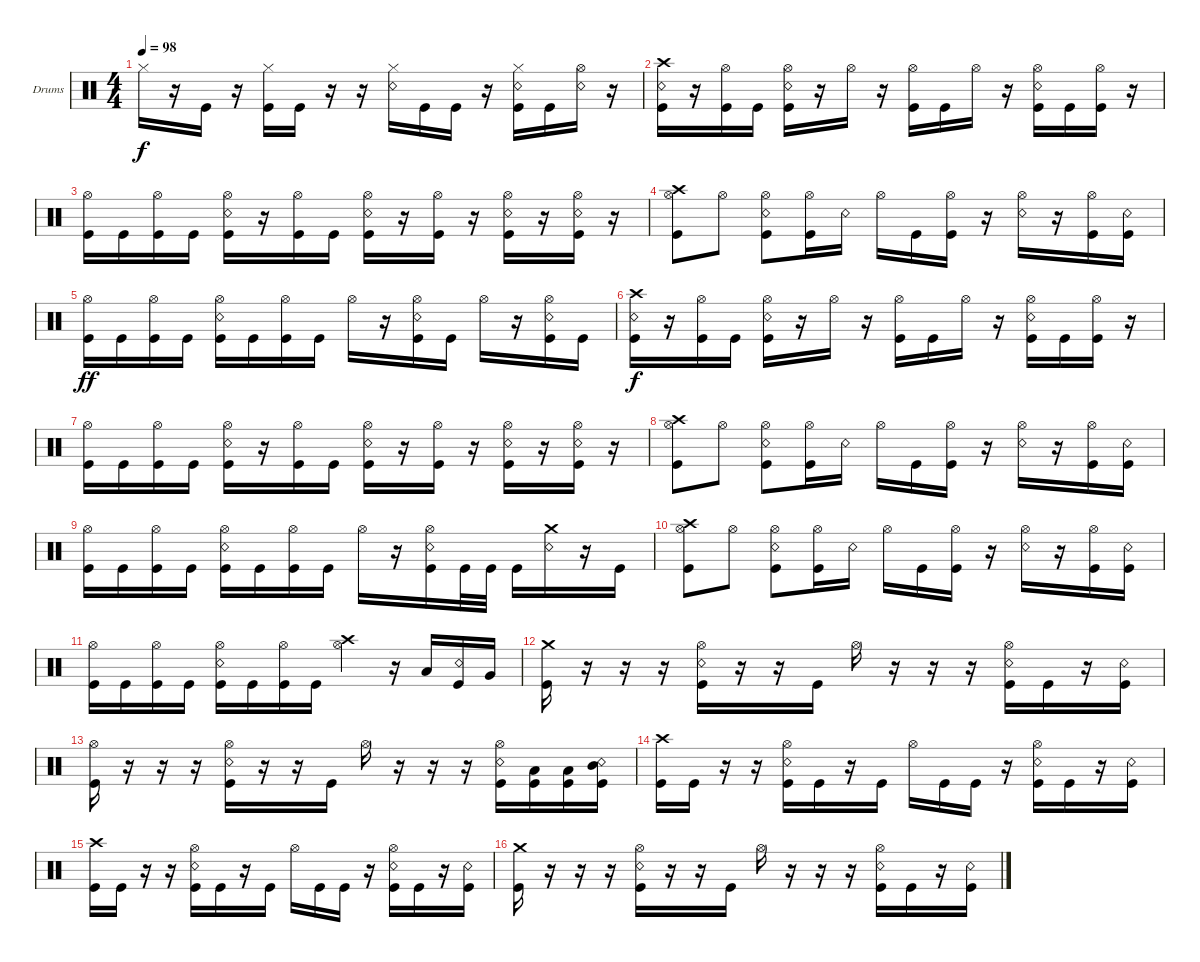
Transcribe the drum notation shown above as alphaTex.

\bracketExtendMode groupsimilarinstruments
\firstSystemTrackNameOrientation horizontal
\otherSystemsTrackNameOrientation horizontal
\track ("Drumkit" "Drums") {instrument percussion}
\staff {score}
\articulation defaults
\ts (4 4)
\tempo 98
\clef neutral
\ks c "Hi-Hat (closed)".16{dy f}
r.16 "Kick (hit)".16 r.16 ("Kick (hit)" "Hi-Hat (closed)").16 "Kick (hit)".16 r.16 r.16 ("Hi-Hat (closed)" "Snare (rim shot)").16 "Kick (hit)".16 "Kick (hit)".16 r.16 ("Kick (hit)" "Hi-Hat (closed)" "Snare (rim shot)").16 "Kick (hit)".16 ("Snare (rim shot)" "Hi-Hat (open)").16 r.16 |
("Crash high (hit)" "Kick (hit)" "Snare (rim shot)").16 r.16 ("Kick (hit)" "Hi-Hat (open)").16 "Kick (hit)".16 ("Kick (hit)" "Hi-Hat (open)" "Snare (rim shot)").16 r.16 "Hi-Hat (open)".16 r.16 ("Kick (hit)" "Hi-Hat (open)").16 "Kick (hit)".16 "Hi-Hat (open)".16 r.16 ("Kick (hit)" "Hi-Hat (open)" "Snare (rim shot)").16 "Kick (hit)".16 ("Kick (hit)" "Hi-Hat (open)").16 r.16 |
("Kick (hit)" "Hi-Hat (open)").16 "Kick (hit)".16 ("Kick (hit)" "Hi-Hat (open)").16 "Kick (hit)".16 ("Kick (hit)" "Hi-Hat (open)" "Snare (rim shot)").16 r.16 ("Kick (hit)" "Hi-Hat (open)").16 "Kick (hit)".16 ("Kick (hit)" "Hi-Hat (open)" "Snare (rim shot)").16 r.16 ("Kick (hit)" "Hi-Hat (open)").16 r.16 ("Kick (hit)" "Hi-Hat (open)" "Snare (rim shot)").16 r.16 ("Kick (hit)" "Hi-Hat (open)" "Snare (rim shot)").16 r.16 |
("Kick (hit)" "Hi-Hat (open)" "Crash high (hit)").8 "Hi-Hat (open)".8 ("Kick (hit)" "Hi-Hat (open)" "Snare (rim shot)").8 ("Kick (hit)" "Hi-Hat (open)").16 "Snare (rim shot)".16 "Hi-Hat (open)".16 "Kick (hit)".16 ("Kick (hit)" "Hi-Hat (open)").16 r.16 ("Snare (rim shot)" "Hi-Hat (open)").16 r.16 ("Hi-Hat (open)" "Kick (hit)").16 ("Snare (rim shot)" "Kick (hit)").16 |
("Kick (hit)" "Hi-Hat (open)").16{dy ff} "Kick (hit)".16 ("Kick (hit)" "Hi-Hat (open)").16 "Kick (hit)".16 ("Kick (hit)" "Hi-Hat (open)" "Snare (rim shot)").16 "Kick (hit)".16 ("Kick (hit)" "Hi-Hat (open)").16 "Kick (hit)".16 "Hi-Hat (open)".16 r.16 ("Kick (hit)" "Hi-Hat (open)" "Snare (rim shot)").16 "Kick (hit)".16 "Hi-Hat (open)".16 r.16 ("Kick (hit)" "Snare (rim shot)" "Hi-Hat (open)").16 "Kick (hit)".16 |
("Crash high (hit)" "Kick (hit)" "Snare (rim shot)").16{dy f} r.16 ("Kick (hit)" "Hi-Hat (open)").16 "Kick (hit)".16 ("Kick (hit)" "Hi-Hat (open)" "Snare (rim shot)").16 r.16 "Hi-Hat (open)".16 r.16 ("Kick (hit)" "Hi-Hat (open)").16 "Kick (hit)".16 "Hi-Hat (open)".16 r.16 ("Kick (hit)" "Hi-Hat (open)" "Snare (rim shot)").16 "Kick (hit)".16 ("Kick (hit)" "Hi-Hat (open)").16 r.16 |
("Kick (hit)" "Hi-Hat (open)").16 "Kick (hit)".16 ("Kick (hit)" "Hi-Hat (open)").16 "Kick (hit)".16 ("Kick (hit)" "Hi-Hat (open)" "Snare (rim shot)").16 r.16 ("Kick (hit)" "Hi-Hat (open)").16 "Kick (hit)".16 ("Kick (hit)" "Hi-Hat (open)" "Snare (rim shot)").16 r.16 ("Kick (hit)" "Hi-Hat (open)").16 r.16 ("Kick (hit)" "Hi-Hat (open)" "Snare (rim shot)").16 r.16 ("Kick (hit)" "Hi-Hat (open)" "Snare (rim shot)").16 r.16 |
("Kick (hit)" "Hi-Hat (open)" "Crash high (hit)").8 "Hi-Hat (open)".8 ("Kick (hit)" "Hi-Hat (open)" "Snare (rim shot)").8 ("Kick (hit)" "Hi-Hat (open)").16 "Snare (rim shot)".16 "Hi-Hat (open)".16 "Kick (hit)".16 ("Kick (hit)" "Hi-Hat (open)").16 r.16 ("Snare (rim shot)" "Hi-Hat (open)").16 r.16 ("Hi-Hat (open)" "Kick (hit)").16 ("Snare (rim shot)" "Kick (hit)").16 |
("Kick (hit)" "Hi-Hat (open)").16 "Kick (hit)".16 ("Kick (hit)" "Hi-Hat (open)").16 "Kick (hit)".16 ("Kick (hit)" "Hi-Hat (open)" "Snare (rim shot)").16 "Kick (hit)".16 ("Kick (hit)" "Hi-Hat (open)").16 "Kick (hit)".16 "Hi-Hat (open)".16 r.16 ("Hi-Hat (open)" "Snare (rim shot)" "Kick (hit)").16 "Kick (hit)".32 "Kick (hit)".32 "Kick (hit)".16 ("Snare (rim shot)" "Crash medium (hit)").16 r.16 "Kick (hit)".16 |
("Kick (hit)" "Hi-Hat (open)" "Crash high (hit)").8 "Hi-Hat (open)".8 ("Kick (hit)" "Hi-Hat (open)" "Snare (rim shot)").8 ("Kick (hit)" "Hi-Hat (open)").16 "Snare (rim shot)".16 "Hi-Hat (open)".16 "Kick (hit)".16 ("Kick (hit)" "Hi-Hat (open)").16 r.16 ("Snare (rim shot)" "Hi-Hat (open)").16 r.16 ("Hi-Hat (open)" "Kick (hit)").16 ("Snare (rim shot)" "Kick (hit)").16 |
("Kick (hit)" "Hi-Hat (open)").16 "Kick (hit)".16 ("Kick (hit)" "Hi-Hat (open)").16 "Kick (hit)".16 ("Kick (hit)" "Hi-Hat (open)" "Snare (rim shot)").16 "Kick (hit)".16 ("Kick (hit)" "Hi-Hat (open)").16 "Kick (hit)".16 ("Hi-Hat (open)" "Crash high (hit)").4 r.16 "Low Tom (hit)".16 ("Snare (rim shot)" "Kick (hit)").16 "Very Low Tom (hit)".16 |
("Crash medium (hit)" "Kick (hit)").16 r.16 r.16 r.16 ("Kick (hit)" "Hi-Hat (open)" "Snare (rim shot)").16 r.16 r.16 "Kick (hit)".16 "Hi-Hat (open)".16 r.16 r.16 r.16 ("Kick (hit)" "Hi-Hat (open)" "Snare (rim shot)").16 "Kick (hit)".16 r.16 ("Kick (hit)" "Snare (rim shot)").16 |
("Kick (hit)" "Hi-Hat (open)").16 r.16 r.16 r.16 ("Kick (hit)" "Hi-Hat (open)" "Snare (rim shot)").16 r.16 r.16 "Kick (hit)".16 "Hi-Hat (open)".16 r.16 r.16 r.16 ("Kick (hit)" "Hi-Hat (open)" "Snare (rim shot)").16 ("Kick (hit)" "Low Tom (hit)").16 ("Kick (hit)" "Low Tom (hit)").16 ("Kick (hit)" "Snare (rim shot)" "Mid Tom (hit)").16 |
("Kick (hit)" "Crash high (hit)").16 "Kick (hit)".16 r.16 r.16 ("Kick (hit)" "Hi-Hat (open)" "Snare (rim shot)").16 "Kick (hit)".16 r.16 "Kick (hit)".16 "Hi-Hat (open)".16 "Kick (hit)".16 "Kick (hit)".16 r.16 ("Kick (hit)" "Hi-Hat (open)" "Snare (rim shot)").16 "Kick (hit)".16 r.16 ("Kick (hit)" "Snare (rim shot)").16 |
("Kick (hit)" "Crash high (hit)").16 "Kick (hit)".16 r.16 r.16 ("Kick (hit)" "Hi-Hat (open)" "Snare (rim shot)").16 "Kick (hit)".16 r.16 "Kick (hit)".16 "Hi-Hat (open)".16 "Kick (hit)".16 "Kick (hit)".16 r.16 ("Kick (hit)" "Hi-Hat (open)" "Snare (rim shot)").16 "Kick (hit)".16 r.16 ("Kick (hit)" "Snare (rim shot)").16 |
("Crash medium (hit)" "Kick (hit)").16 r.16 r.16 r.16 ("Kick (hit)" "Hi-Hat (open)" "Snare (rim shot)").16 r.16 r.16 "Kick (hit)".16 "Hi-Hat (open)".16 r.16 r.16 r.16 ("Kick (hit)" "Hi-Hat (open)" "Snare (rim shot)").16 "Kick (hit)".16 r.16 ("Kick (hit)" "Snare (rim shot)").16
